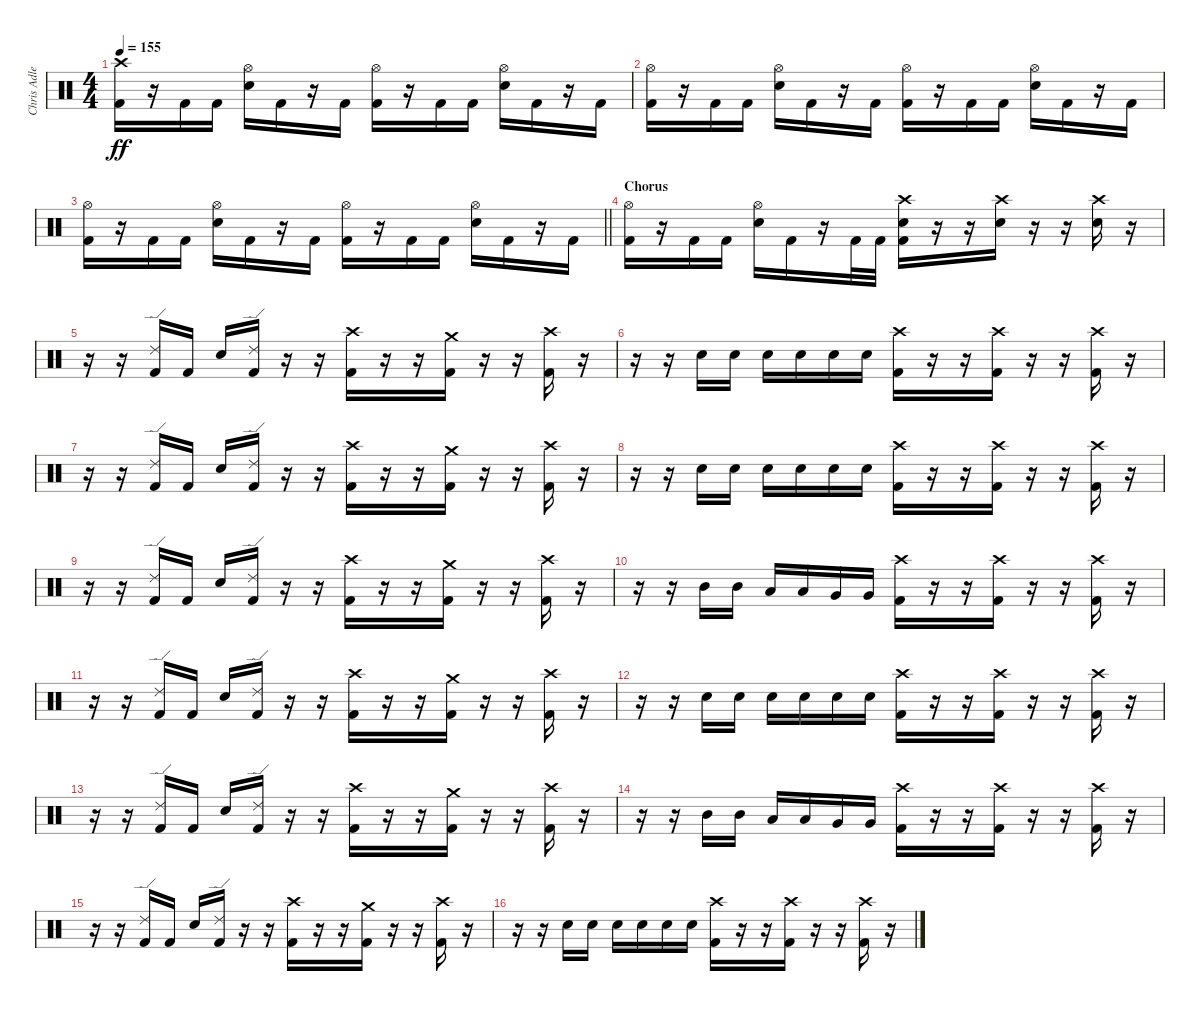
\track ("Chris Adler" "Chris Adle") {instrument percussion}
\staff {score}
\articulation defaults
\ts (4 4)
\tempo 155
\clef neutral
\ks c
("Crash high (hit)" "Kick (hit) 2").16{dy ff} r.16 "Kick (hit) 2".16 "Kick (hit) 2".16 ("Hi-Hat (open)" "Snare (hit) 2").16 "Kick (hit) 2".16 r.16 "Kick (hit) 2".16 ("Hi-Hat (open)" "Kick (hit) 2").16 r.16 "Kick (hit) 2".16 "Kick (hit) 2".16 ("Hi-Hat (open)" "Snare (hit) 2").16 "Kick (hit) 2".16 r.16 "Kick (hit) 2".16 |
("Hi-Hat (open)" "Kick (hit) 2").16 r.16 "Kick (hit) 2".16 "Kick (hit) 2".16 ("Hi-Hat (open)" "Snare (hit) 2").16 "Kick (hit) 2".16 r.16 "Kick (hit) 2".16 ("Hi-Hat (open)" "Kick (hit) 2").16 r.16 "Kick (hit) 2".16 "Kick (hit) 2".16 ("Hi-Hat (open)" "Snare (hit) 2").16 "Kick (hit) 2".16 r.16 "Kick (hit) 2".16 |
\barLineRight lightlight
("Hi-Hat (open)" "Kick (hit) 2").16 r.16 "Kick (hit) 2".16 "Kick (hit) 2".16 ("Hi-Hat (open)" "Snare (hit) 2").16 "Kick (hit) 2".16 r.16 "Kick (hit) 2".16 ("Hi-Hat (open)" "Kick (hit) 2").16 r.16 "Kick (hit) 2".16 "Kick (hit) 2".16 ("Hi-Hat (open)" "Snare (hit) 2").16 "Kick (hit) 2".16 r.16 "Kick (hit) 2".16 |
\section ("" "Chorus")
("Hi-Hat (open)" "Kick (hit) 2").16 r.16 "Kick (hit) 2".16 "Kick (hit) 2".16 ("Hi-Hat (open)" "Snare (hit) 2").16 "Kick (hit) 2".16 r.16 "Kick (hit) 2".32 "Kick (hit) 2".32 ("Crash high (hit)" "Snare (hit) 2" "Kick (hit) 2").16 r.16 r.16 ("Crash high (hit)" "Snare (hit) 2").16 r.16 r.16 ("Crash high (hit)" "Snare (hit) 2").16 r.16 |
r.16 r.16 ("Ride (edge) 2" "Kick (hit) 2").16 "Kick (hit) 2".16 "Snare (hit) 2".16 ("Ride (edge) 2" "Kick (hit) 2").16 r.16 r.16 ("Crash high (hit)" "Kick (hit) 2").16 r.16 r.16 ("Crash medium (hit)" "Kick (hit) 2").16 r.16 r.16 ("Crash high (hit)" "Kick (hit) 2").16 r.16 |
r.16 r.16 "Snare (hit) 2".16 "Snare (hit) 2".16 "Snare (hit) 2".16 "Snare (hit) 2".16 "Snare (hit) 2".16 "Snare (hit) 2".16 ("Crash high (hit)" "Kick (hit) 2").16 r.16 r.16 ("Crash high (hit)" "Kick (hit) 2").16 r.16 r.16 ("Crash high (hit)" "Kick (hit) 2").16 r.16 |
r.16 r.16 ("Ride (edge) 2" "Kick (hit) 2").16 "Kick (hit) 2".16 "Snare (hit) 2".16 ("Ride (edge) 2" "Kick (hit) 2").16 r.16 r.16 ("Crash high (hit)" "Kick (hit) 2").16 r.16 r.16 ("Crash medium (hit)" "Kick (hit) 2").16 r.16 r.16 ("Crash high (hit)" "Kick (hit) 2").16 r.16 |
r.16 r.16 "Snare (hit) 2".16 "Snare (hit) 2".16 "Snare (hit) 2".16 "Snare (hit) 2".16 "Snare (hit) 2".16 "Snare (hit) 2".16 ("Crash high (hit)" "Kick (hit) 2").16 r.16 r.16 ("Crash high (hit)" "Kick (hit) 2").16 r.16 r.16 ("Crash high (hit)" "Kick (hit) 2").16 r.16 |
r.16 r.16 ("Ride (edge) 2" "Kick (hit) 2").16 "Kick (hit) 2".16 "Snare (hit) 2".16 ("Ride (edge) 2" "Kick (hit) 2").16 r.16 r.16 ("Crash high (hit)" "Kick (hit) 2").16 r.16 r.16 ("Crash medium (hit)" "Kick (hit) 2").16 r.16 r.16 ("Crash high (hit)" "Kick (hit) 2").16 r.16 |
r.16 r.16 "Mid Tom (hit)".16 "Mid Tom (hit)".16 "Low Tom (hit)".16 "Low Tom (hit)".16 "Very Low Tom (hit)".16 "Very Low Tom (hit)".16 ("Crash high (hit)" "Kick (hit) 2").16 r.16 r.16 ("Crash high (hit)" "Kick (hit) 2").16 r.16 r.16 ("Crash high (hit)" "Kick (hit) 2").16 r.16 |
r.16 r.16 ("Ride (edge) 2" "Kick (hit) 2").16 "Kick (hit) 2".16 "Snare (hit) 2".16 ("Ride (edge) 2" "Kick (hit) 2").16 r.16 r.16 ("Crash high (hit)" "Kick (hit) 2").16 r.16 r.16 ("Crash medium (hit)" "Kick (hit) 2").16 r.16 r.16 ("Crash high (hit)" "Kick (hit) 2").16 r.16 |
r.16 r.16 "Snare (hit) 2".16 "Snare (hit) 2".16 "Snare (hit) 2".16 "Snare (hit) 2".16 "Snare (hit) 2".16 "Snare (hit) 2".16 ("Crash high (hit)" "Kick (hit) 2").16 r.16 r.16 ("Crash high (hit)" "Kick (hit) 2").16 r.16 r.16 ("Crash high (hit)" "Kick (hit) 2").16 r.16 |
r.16 r.16 ("Ride (edge) 2" "Kick (hit) 2").16 "Kick (hit) 2".16 "Snare (hit) 2".16 ("Ride (edge) 2" "Kick (hit) 2").16 r.16 r.16 ("Crash high (hit)" "Kick (hit) 2").16 r.16 r.16 ("Crash medium (hit)" "Kick (hit) 2").16 r.16 r.16 ("Crash high (hit)" "Kick (hit) 2").16 r.16 |
r.16 r.16 "Mid Tom (hit)".16 "Mid Tom (hit)".16 "Low Tom (hit)".16 "Low Tom (hit)".16 "Very Low Tom (hit)".16 "Very Low Tom (hit)".16 ("Crash high (hit)" "Kick (hit) 2").16 r.16 r.16 ("Crash high (hit)" "Kick (hit) 2").16 r.16 r.16 ("Crash high (hit)" "Kick (hit) 2").16 r.16 |
r.16 r.16 ("Ride (edge) 2" "Kick (hit) 2").16 "Kick (hit) 2".16 "Snare (hit) 2".16 ("Ride (edge) 2" "Kick (hit) 2").16 r.16 r.16 ("Crash high (hit)" "Kick (hit) 2").16 r.16 r.16 ("Crash medium (hit)" "Kick (hit) 2").16 r.16 r.16 ("Crash high (hit)" "Kick (hit) 2").16 r.16 |
r.16 r.16 "Snare (hit) 2".16 "Snare (hit) 2".16 "Snare (hit) 2".16 "Snare (hit) 2".16 "Snare (hit) 2".16 "Snare (hit) 2".16 ("Crash high (hit)" "Kick (hit) 2").16 r.16 r.16 ("Crash high (hit)" "Kick (hit) 2").16 r.16 r.16 ("Crash high (hit)" "Kick (hit) 2").16 r.16
